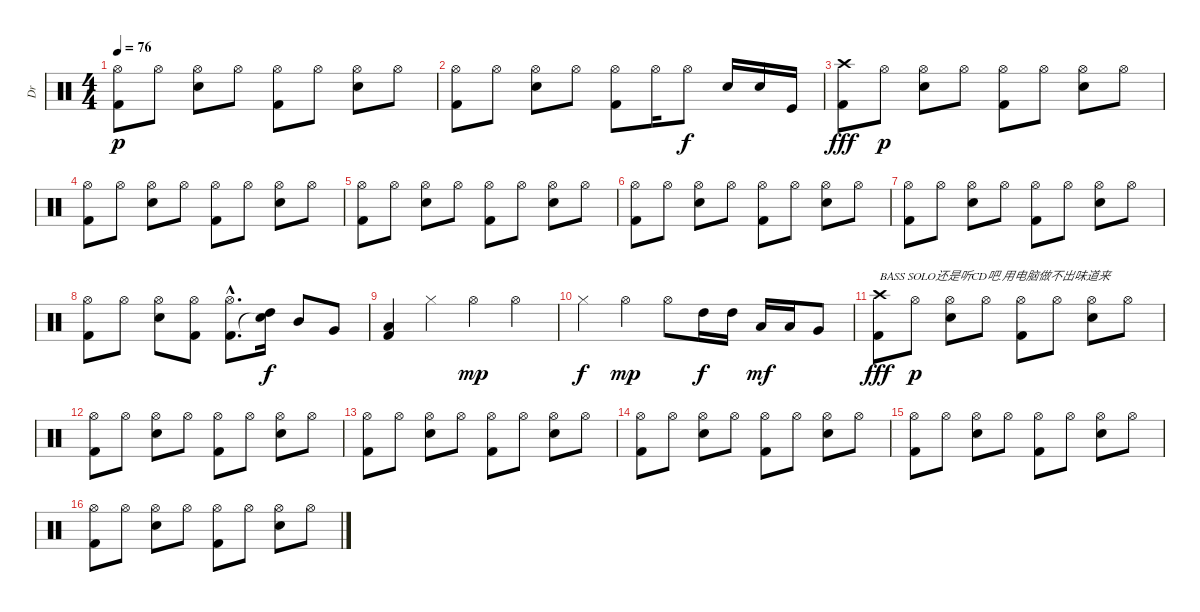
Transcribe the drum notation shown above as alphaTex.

\track ("Dr" "Dr") {instrument percussion}
\staff {score}
\articulation defaults
\ts (4 4)
\tempo 76
\clef neutral
\ks c
("Kick (hit) 2" "Hi-Hat (open)").8{dy p} "Hi-Hat (open)".8 ("Hi-Hat (open)" "Snare (hit) 2").8 "Hi-Hat (open)".8 ("Kick (hit) 2" "Hi-Hat (open)").8 "Hi-Hat (open)".8 ("Snare (hit) 2" "Hi-Hat (open)").8 "Hi-Hat (open)".8 |
("Kick (hit) 2" "Hi-Hat (open)").8 "Hi-Hat (open)".8 ("Hi-Hat (open)" "Snare (hit) 2").8 "Hi-Hat (open)".8 ("Kick (hit) 2" "Hi-Hat (open)").8 "Hi-Hat (open)".16 "Hi-Hat (open)".8{dy f} "Snare (hit) 2".16 "Snare (hit) 2".16 "Kick (hit)".16 |
("Kick (hit) 2" "Crash high (hit)").8{dy fff} "Hi-Hat (open)".8{dy p} ("Hi-Hat (open)" "Snare (hit) 2").8 "Hi-Hat (open)".8 ("Kick (hit) 2" "Hi-Hat (open)").8 "Hi-Hat (open)".8 ("Snare (hit) 2" "Hi-Hat (open)").8 "Hi-Hat (open)".8 |
("Kick (hit) 2" "Hi-Hat (open)").8 "Hi-Hat (open)".8 ("Hi-Hat (open)" "Snare (hit) 2").8 "Hi-Hat (open)".8 ("Kick (hit) 2" "Hi-Hat (open)").8 "Hi-Hat (open)".8 ("Snare (hit) 2" "Hi-Hat (open)").8 "Hi-Hat (open)".8 |
("Kick (hit) 2" "Hi-Hat (open)").8 "Hi-Hat (open)".8 ("Hi-Hat (open)" "Snare (hit) 2").8 "Hi-Hat (open)".8 ("Kick (hit) 2" "Hi-Hat (open)").8 "Hi-Hat (open)".8 ("Snare (hit) 2" "Hi-Hat (open)").8 "Hi-Hat (open)".8 |
("Kick (hit) 2" "Hi-Hat (open)").8 "Hi-Hat (open)".8 ("Hi-Hat (open)" "Snare (hit) 2").8 "Hi-Hat (open)".8 ("Kick (hit) 2" "Hi-Hat (open)").8 "Hi-Hat (open)".8 ("Snare (hit) 2" "Hi-Hat (open)").8 "Hi-Hat (open)".8 |
("Kick (hit) 2" "Hi-Hat (open)").8 "Hi-Hat (open)".8 ("Hi-Hat (open)" "Snare (hit) 2").8 "Hi-Hat (open)".8 ("Kick (hit) 2" "Hi-Hat (open)").8 "Hi-Hat (open)".8 ("Snare (hit) 2" "Hi-Hat (open)").8 "Hi-Hat (open)".8 |
("Kick (hit) 2" "Hi-Hat (open)").8 "Hi-Hat (open)".8 ("Hi-Hat (open)" "Snare (hit) 2").8 ("Kick (hit) 2" "Hi-Hat (open)").8 ("Kick (hit) 2"{hac} "Hi-Hat (open)"{hac}).8{d} ("Snare (hit)"{t} "High Tom (hit)").16{dy f} "Mid Tom (hit)".8 "Very Low Tom (hit)".8 |
("Low Floor Tom (hit)" "Kick (hit) 2").4 "Hi-Hat (closed)".4 "Hi-Hat (open)".4{dy mp} "Hi-Hat (open)".4 |
"Hi-Hat (closed)".4{dy f} "Hi-Hat (open)".4{dy mp} "Hi-Hat (open)".8 "High Tom (hit)".16{dy f} "High Tom (hit)".16 "Low Tom (hit)".16{dy mf} "Low Tom (hit)".16 "Very Low Tom (hit)".8 |
("Kick (hit) 2" "Crash high (hit)").8{txt "BASS SOLO还是听CD吧.用电脑做不出味道来" dy fff} "Hi-Hat (open)".8{dy p} ("Hi-Hat (open)" "Snare (hit) 2").8 "Hi-Hat (open)".8 ("Kick (hit) 2" "Hi-Hat (open)").8 "Hi-Hat (open)".8 ("Snare (hit) 2" "Hi-Hat (open)").8 "Hi-Hat (open)".8 |
("Kick (hit) 2" "Hi-Hat (open)").8 "Hi-Hat (open)".8 ("Hi-Hat (open)" "Snare (hit) 2").8 "Hi-Hat (open)".8 ("Kick (hit) 2" "Hi-Hat (open)").8 "Hi-Hat (open)".8 ("Snare (hit) 2" "Hi-Hat (open)").8 "Hi-Hat (open)".8 |
("Kick (hit) 2" "Hi-Hat (open)").8 "Hi-Hat (open)".8 ("Hi-Hat (open)" "Snare (hit) 2").8 "Hi-Hat (open)".8 ("Kick (hit) 2" "Hi-Hat (open)").8 "Hi-Hat (open)".8 ("Snare (hit) 2" "Hi-Hat (open)").8 "Hi-Hat (open)".8 |
("Kick (hit) 2" "Hi-Hat (open)").8 "Hi-Hat (open)".8 ("Hi-Hat (open)" "Snare (hit) 2").8 "Hi-Hat (open)".8 ("Kick (hit) 2" "Hi-Hat (open)").8 "Hi-Hat (open)".8 ("Snare (hit) 2" "Hi-Hat (open)").8 "Hi-Hat (open)".8 |
("Kick (hit) 2" "Hi-Hat (open)").8 "Hi-Hat (open)".8 ("Hi-Hat (open)" "Snare (hit) 2").8 "Hi-Hat (open)".8 ("Kick (hit) 2" "Hi-Hat (open)").8 "Hi-Hat (open)".8 ("Snare (hit) 2" "Hi-Hat (open)").8 "Hi-Hat (open)".8 |
("Kick (hit) 2" "Hi-Hat (open)").8 "Hi-Hat (open)".8 ("Hi-Hat (open)" "Snare (hit) 2").8 "Hi-Hat (open)".8 ("Kick (hit) 2" "Hi-Hat (open)").8 "Hi-Hat (open)".8 ("Snare (hit) 2" "Hi-Hat (open)").8 "Hi-Hat (open)".8
